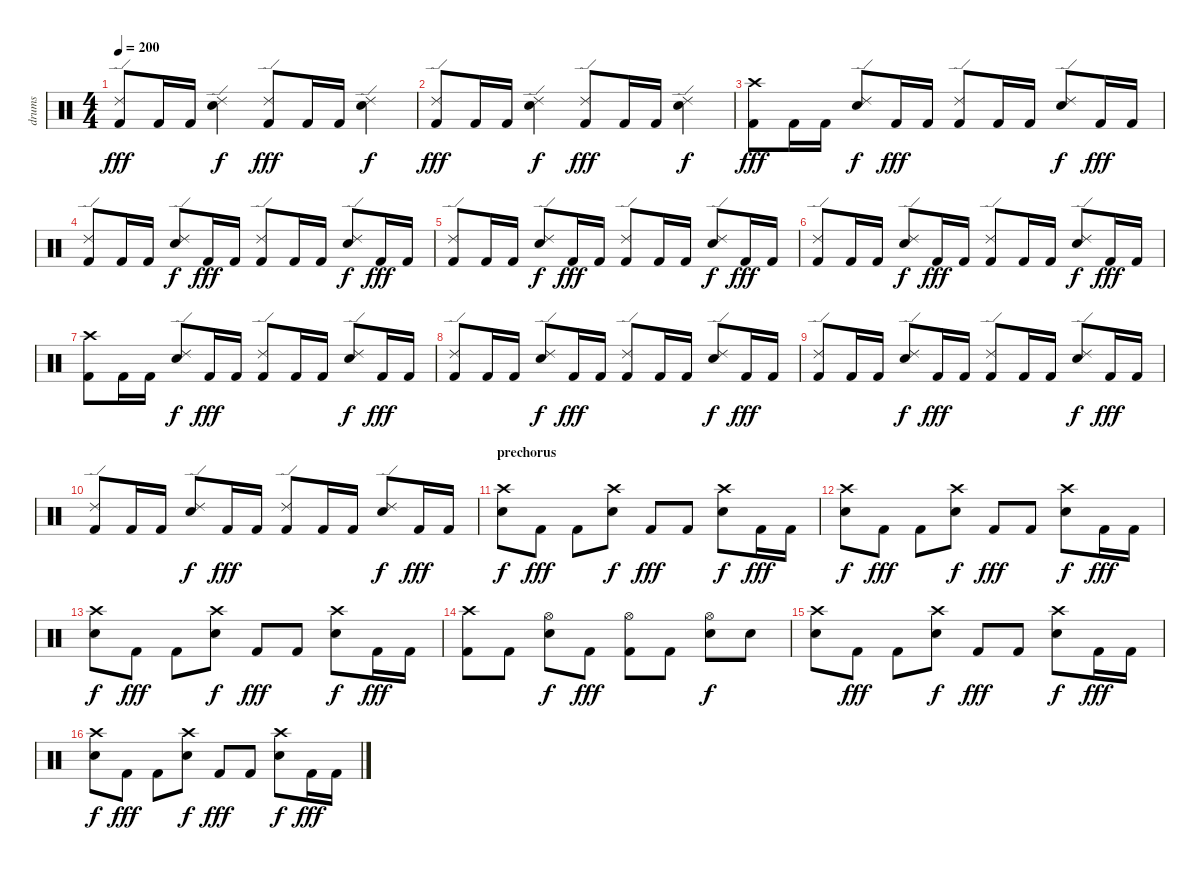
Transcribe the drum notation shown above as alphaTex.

\track ("drums" "drums") {instrument percussion}
\staff {score}
\articulation defaults
\ts (4 4)
\tempo 200
\clef neutral
\ks c
("Ride (edge) 2" "Kick (hit) 2").8{dy fff} "Kick (hit) 2".16 "Kick (hit) 2".16 ("Ride (edge) 2" "Snare (hit) 2").4{dy f} ("Ride (edge) 2" "Kick (hit) 2").8{dy fff} "Kick (hit) 2".16 "Kick (hit) 2".16 ("Ride (edge) 2" "Snare (hit) 2").4{dy f} |
("Ride (edge) 2" "Kick (hit) 2").8{dy fff} "Kick (hit) 2".16 "Kick (hit) 2".16 ("Ride (edge) 2" "Snare (hit) 2").4{dy f} ("Ride (edge) 2" "Kick (hit) 2").8{dy fff} "Kick (hit) 2".16 "Kick (hit) 2".16 ("Ride (edge) 2" "Snare (hit) 2").4{dy f} |
("Crash high (hit)" "Kick (hit) 2").8{dy fff} "Kick (hit) 2".16 "Kick (hit) 2".16 ("Ride (edge) 2" "Snare (hit) 2").8{dy f} "Kick (hit) 2".16{dy fff} "Kick (hit) 2".16 ("Ride (edge) 2" "Kick (hit) 2").8 "Kick (hit) 2".16 "Kick (hit) 2".16 ("Ride (edge) 2" "Snare (hit) 2").8{dy f} "Kick (hit) 2".16{dy fff} "Kick (hit) 2".16 |
("Ride (edge) 2" "Kick (hit) 2").8 "Kick (hit) 2".16 "Kick (hit) 2".16 ("Ride (edge) 2" "Snare (hit) 2").8{dy f} "Kick (hit) 2".16{dy fff} "Kick (hit) 2".16 ("Ride (edge) 2" "Kick (hit) 2").8 "Kick (hit) 2".16 "Kick (hit) 2".16 ("Ride (edge) 2" "Snare (hit) 2").8{dy f} "Kick (hit) 2".16{dy fff} "Kick (hit) 2".16 |
("Ride (edge) 2" "Kick (hit) 2").8 "Kick (hit) 2".16 "Kick (hit) 2".16 ("Ride (edge) 2" "Snare (hit) 2").8{dy f} "Kick (hit) 2".16{dy fff} "Kick (hit) 2".16 ("Ride (edge) 2" "Kick (hit) 2").8 "Kick (hit) 2".16 "Kick (hit) 2".16 ("Ride (edge) 2" "Snare (hit) 2").8{dy f} "Kick (hit) 2".16{dy fff} "Kick (hit) 2".16 |
("Ride (edge) 2" "Kick (hit) 2").8 "Kick (hit) 2".16 "Kick (hit) 2".16 ("Ride (edge) 2" "Snare (hit) 2").8{dy f} "Kick (hit) 2".16{dy fff} "Kick (hit) 2".16 ("Ride (edge) 2" "Kick (hit) 2").8 "Kick (hit) 2".16 "Kick (hit) 2".16 ("Ride (edge) 2" "Snare (hit) 2").8{dy f} "Kick (hit) 2".16{dy fff} "Kick (hit) 2".16 |
("Crash high (hit)" "Kick (hit) 2").8 "Kick (hit) 2".16 "Kick (hit) 2".16 ("Ride (edge) 2" "Snare (hit) 2").8{dy f} "Kick (hit) 2".16{dy fff} "Kick (hit) 2".16 ("Ride (edge) 2" "Kick (hit) 2").8 "Kick (hit) 2".16 "Kick (hit) 2".16 ("Ride (edge) 2" "Snare (hit) 2").8{dy f} "Kick (hit) 2".16{dy fff} "Kick (hit) 2".16 |
("Ride (edge) 2" "Kick (hit) 2").8 "Kick (hit) 2".16 "Kick (hit) 2".16 ("Ride (edge) 2" "Snare (hit) 2").8{dy f} "Kick (hit) 2".16{dy fff} "Kick (hit) 2".16 ("Ride (edge) 2" "Kick (hit) 2").8 "Kick (hit) 2".16 "Kick (hit) 2".16 ("Ride (edge) 2" "Snare (hit) 2").8{dy f} "Kick (hit) 2".16{dy fff} "Kick (hit) 2".16 |
("Ride (edge) 2" "Kick (hit) 2").8 "Kick (hit) 2".16 "Kick (hit) 2".16 ("Ride (edge) 2" "Snare (hit) 2").8{dy f} "Kick (hit) 2".16{dy fff} "Kick (hit) 2".16 ("Ride (edge) 2" "Kick (hit) 2").8 "Kick (hit) 2".16 "Kick (hit) 2".16 ("Ride (edge) 2" "Snare (hit) 2").8{dy f} "Kick (hit) 2".16{dy fff} "Kick (hit) 2".16 |
("Ride (edge) 2" "Kick (hit) 2").8 "Kick (hit) 2".16 "Kick (hit) 2".16 ("Ride (edge) 2" "Snare (hit) 2").8{dy f} "Kick (hit) 2".16{dy fff} "Kick (hit) 2".16 ("Ride (edge) 2" "Kick (hit) 2").8 "Kick (hit) 2".16 "Kick (hit) 2".16 ("Ride (edge) 2" "Snare (hit) 2").8{dy f} "Kick (hit) 2".16{dy fff} "Kick (hit) 2".16 |
\section ("" "prechorus")
("Crash high (hit)" "Snare (hit) 2").8{dy f} "Kick (hit) 2".8{dy fff} "Kick (hit) 2".8 ("Crash high (hit)" "Snare (hit) 2").8{dy f} "Kick (hit) 2".8{dy fff} "Kick (hit) 2".8 ("Crash high (hit)" "Snare (hit) 2").8{dy f} "Kick (hit) 2".16{dy fff} "Kick (hit) 2".16 |
("Crash high (hit)" "Snare (hit) 2").8{dy f} "Kick (hit) 2".8{dy fff} "Kick (hit) 2".8 ("Crash high (hit)" "Snare (hit) 2").8{dy f} "Kick (hit) 2".8{dy fff} "Kick (hit) 2".8 ("Crash high (hit)" "Snare (hit) 2").8{dy f} "Kick (hit) 2".16{dy fff} "Kick (hit) 2".16 |
("Crash high (hit)" "Snare (hit) 2").8{dy f} "Kick (hit) 2".8{dy fff} "Kick (hit) 2".8 ("Crash high (hit)" "Snare (hit) 2").8{dy f} "Kick (hit) 2".8{dy fff} "Kick (hit) 2".8 ("Crash high (hit)" "Snare (hit) 2").8{dy f} "Kick (hit) 2".16{dy fff} "Kick (hit) 2".16 |
("Crash high (hit)" "Kick (hit) 2").8 "Kick (hit) 2".8 ("Hi-Hat (open)" "Snare (hit) 2").8{dy f} "Kick (hit) 2".8{dy fff} ("Hi-Hat (open)" "Kick (hit) 2").8 "Kick (hit) 2".8 ("Hi-Hat (open)" "Snare (hit) 2").8{dy f} "Snare (hit) 2".8 |
("Crash high (hit)" "Snare (hit) 2").8 "Kick (hit) 2".8{dy fff} "Kick (hit) 2".8 ("Crash high (hit)" "Snare (hit) 2").8{dy f} "Kick (hit) 2".8{dy fff} "Kick (hit) 2".8 ("Crash high (hit)" "Snare (hit) 2").8{dy f} "Kick (hit) 2".16{dy fff} "Kick (hit) 2".16 |
("Crash high (hit)" "Snare (hit) 2").8{dy f} "Kick (hit) 2".8{dy fff} "Kick (hit) 2".8 ("Crash high (hit)" "Snare (hit) 2").8{dy f} "Kick (hit) 2".8{dy fff} "Kick (hit) 2".8 ("Crash high (hit)" "Snare (hit) 2").8{dy f} "Kick (hit) 2".16{dy fff} "Kick (hit) 2".16
